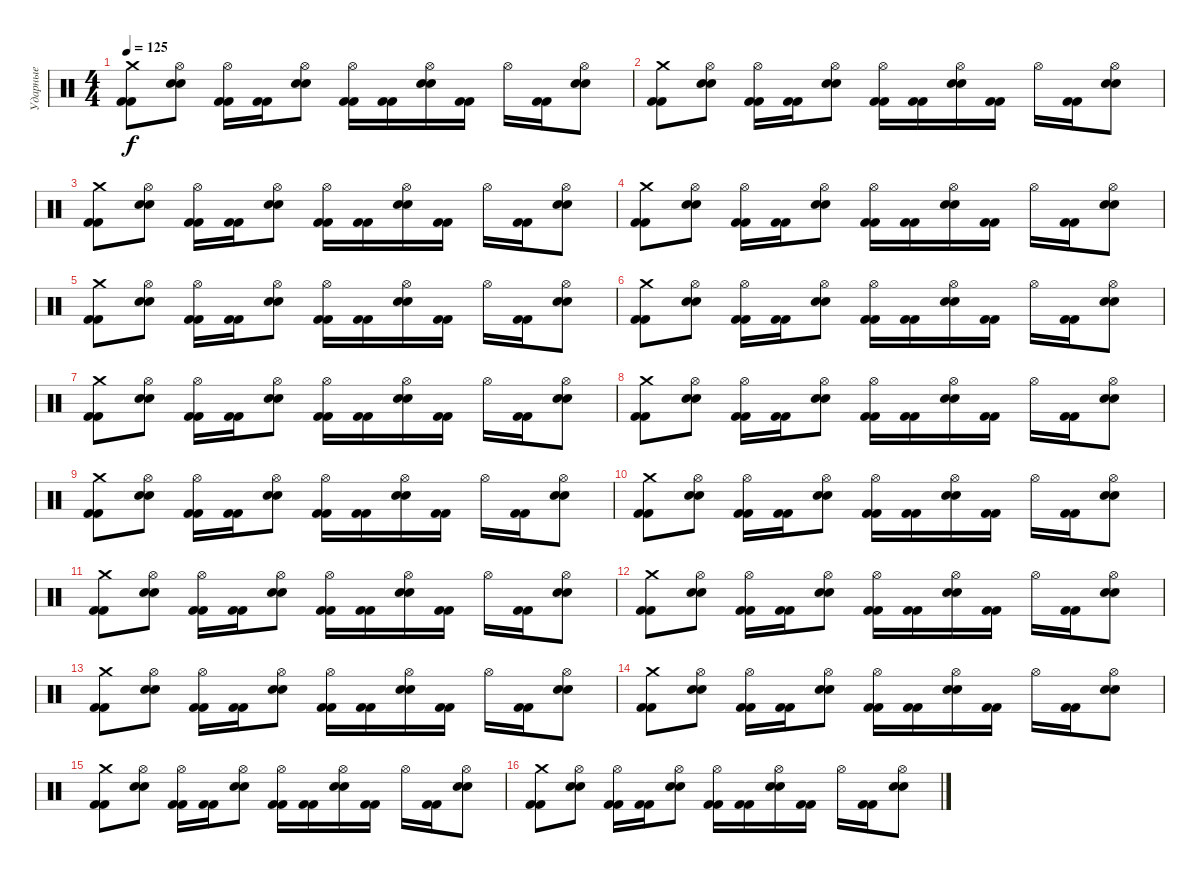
\track ("Ударные" "Ударные") {instrument percussion}
\staff {score}
\articulation defaults
\ts (4 4)
\tempo 125
\clef neutral
\ks c
("Crash medium (hit)" "Kick (hit) 2" "Kick (hit) 2").8{dy f} ("Hi-Hat (open)" "Electric Snare (hit)" "Electric Snare (hit)").8 ("Hi-Hat (open)" "Kick (hit) 2" "Kick (hit) 2").16 ("Kick (hit) 2" "Kick (hit) 2").16 ("Hi-Hat (open)" "Electric Snare (hit)" "Electric Snare (hit)").8 ("Hi-Hat (open)" "Kick (hit) 2" "Kick (hit) 2").16 ("Kick (hit) 2" "Kick (hit) 2").16 ("Hi-Hat (open)" "Electric Snare (hit)" "Electric Snare (hit)").16 ("Kick (hit) 2" "Kick (hit) 2").16 "Hi-Hat (open)".16 ("Kick (hit) 2" "Kick (hit) 2").16 ("Hi-Hat (open)" "Electric Snare (hit)" "Electric Snare (hit)").8 |
("Crash medium (hit)" "Kick (hit) 2" "Kick (hit) 2").8 ("Hi-Hat (open)" "Electric Snare (hit)" "Electric Snare (hit)").8 ("Hi-Hat (open)" "Kick (hit) 2" "Kick (hit) 2").16 ("Kick (hit) 2" "Kick (hit) 2").16 ("Hi-Hat (open)" "Electric Snare (hit)" "Electric Snare (hit)").8 ("Hi-Hat (open)" "Kick (hit) 2" "Kick (hit) 2").16 ("Kick (hit) 2" "Kick (hit) 2").16 ("Hi-Hat (open)" "Electric Snare (hit)" "Electric Snare (hit)").16 ("Kick (hit) 2" "Kick (hit) 2").16 "Hi-Hat (open)".16 ("Kick (hit) 2" "Kick (hit) 2").16 ("Hi-Hat (open)" "Electric Snare (hit)" "Electric Snare (hit)").8 |
("Crash medium (hit)" "Kick (hit) 2" "Kick (hit) 2").8 ("Hi-Hat (open)" "Electric Snare (hit)" "Electric Snare (hit)").8 ("Hi-Hat (open)" "Kick (hit) 2" "Kick (hit) 2").16 ("Kick (hit) 2" "Kick (hit) 2").16 ("Hi-Hat (open)" "Electric Snare (hit)" "Electric Snare (hit)").8 ("Hi-Hat (open)" "Kick (hit) 2" "Kick (hit) 2").16 ("Kick (hit) 2" "Kick (hit) 2").16 ("Hi-Hat (open)" "Electric Snare (hit)" "Electric Snare (hit)").16 ("Kick (hit) 2" "Kick (hit) 2").16 "Hi-Hat (open)".16 ("Kick (hit) 2" "Kick (hit) 2").16 ("Hi-Hat (open)" "Electric Snare (hit)" "Electric Snare (hit)").8 |
("Crash medium (hit)" "Kick (hit) 2" "Kick (hit) 2").8 ("Hi-Hat (open)" "Electric Snare (hit)" "Electric Snare (hit)").8 ("Hi-Hat (open)" "Kick (hit) 2" "Kick (hit) 2").16 ("Kick (hit) 2" "Kick (hit) 2").16 ("Hi-Hat (open)" "Electric Snare (hit)" "Electric Snare (hit)").8 ("Hi-Hat (open)" "Kick (hit) 2" "Kick (hit) 2").16 ("Kick (hit) 2" "Kick (hit) 2").16 ("Hi-Hat (open)" "Electric Snare (hit)" "Electric Snare (hit)").16 ("Kick (hit) 2" "Kick (hit) 2").16 "Hi-Hat (open)".16 ("Kick (hit) 2" "Kick (hit) 2").16 ("Hi-Hat (open)" "Electric Snare (hit)" "Electric Snare (hit)").8 |
("Crash medium (hit)" "Kick (hit) 2" "Kick (hit) 2").8 ("Hi-Hat (open)" "Electric Snare (hit)" "Electric Snare (hit)").8 ("Hi-Hat (open)" "Kick (hit) 2" "Kick (hit) 2").16 ("Kick (hit) 2" "Kick (hit) 2").16 ("Hi-Hat (open)" "Electric Snare (hit)" "Electric Snare (hit)").8 ("Hi-Hat (open)" "Kick (hit) 2" "Kick (hit) 2").16 ("Kick (hit) 2" "Kick (hit) 2").16 ("Hi-Hat (open)" "Electric Snare (hit)" "Electric Snare (hit)").16 ("Kick (hit) 2" "Kick (hit) 2").16 "Hi-Hat (open)".16 ("Kick (hit) 2" "Kick (hit) 2").16 ("Hi-Hat (open)" "Electric Snare (hit)" "Electric Snare (hit)").8 |
("Crash medium (hit)" "Kick (hit) 2" "Kick (hit) 2").8 ("Hi-Hat (open)" "Electric Snare (hit)" "Electric Snare (hit)").8 ("Hi-Hat (open)" "Kick (hit) 2" "Kick (hit) 2").16 ("Kick (hit) 2" "Kick (hit) 2").16 ("Hi-Hat (open)" "Electric Snare (hit)" "Electric Snare (hit)").8 ("Hi-Hat (open)" "Kick (hit) 2" "Kick (hit) 2").16 ("Kick (hit) 2" "Kick (hit) 2").16 ("Hi-Hat (open)" "Electric Snare (hit)" "Electric Snare (hit)").16 ("Kick (hit) 2" "Kick (hit) 2").16 "Hi-Hat (open)".16 ("Kick (hit) 2" "Kick (hit) 2").16 ("Hi-Hat (open)" "Electric Snare (hit)" "Electric Snare (hit)").8 |
("Crash medium (hit)" "Kick (hit) 2" "Kick (hit) 2").8 ("Hi-Hat (open)" "Electric Snare (hit)" "Electric Snare (hit)").8 ("Hi-Hat (open)" "Kick (hit) 2" "Kick (hit) 2").16 ("Kick (hit) 2" "Kick (hit) 2").16 ("Hi-Hat (open)" "Electric Snare (hit)" "Electric Snare (hit)").8 ("Hi-Hat (open)" "Kick (hit) 2" "Kick (hit) 2").16 ("Kick (hit) 2" "Kick (hit) 2").16 ("Hi-Hat (open)" "Electric Snare (hit)" "Electric Snare (hit)").16 ("Kick (hit) 2" "Kick (hit) 2").16 "Hi-Hat (open)".16 ("Kick (hit) 2" "Kick (hit) 2").16 ("Hi-Hat (open)" "Electric Snare (hit)" "Electric Snare (hit)").8 |
("Crash medium (hit)" "Kick (hit) 2" "Kick (hit) 2").8 ("Hi-Hat (open)" "Electric Snare (hit)" "Electric Snare (hit)").8 ("Hi-Hat (open)" "Kick (hit) 2" "Kick (hit) 2").16 ("Kick (hit) 2" "Kick (hit) 2").16 ("Hi-Hat (open)" "Electric Snare (hit)" "Electric Snare (hit)").8 ("Hi-Hat (open)" "Kick (hit) 2" "Kick (hit) 2").16 ("Kick (hit) 2" "Kick (hit) 2").16 ("Hi-Hat (open)" "Electric Snare (hit)" "Electric Snare (hit)").16 ("Kick (hit) 2" "Kick (hit) 2").16 "Hi-Hat (open)".16 ("Kick (hit) 2" "Kick (hit) 2").16 ("Hi-Hat (open)" "Electric Snare (hit)" "Electric Snare (hit)").8 |
("Crash medium (hit)" "Kick (hit) 2" "Kick (hit) 2").8 ("Hi-Hat (open)" "Electric Snare (hit)" "Electric Snare (hit)").8 ("Hi-Hat (open)" "Kick (hit) 2" "Kick (hit) 2").16 ("Kick (hit) 2" "Kick (hit) 2").16 ("Hi-Hat (open)" "Electric Snare (hit)" "Electric Snare (hit)").8 ("Hi-Hat (open)" "Kick (hit) 2" "Kick (hit) 2").16 ("Kick (hit) 2" "Kick (hit) 2").16 ("Hi-Hat (open)" "Electric Snare (hit)" "Electric Snare (hit)").16 ("Kick (hit) 2" "Kick (hit) 2").16 "Hi-Hat (open)".16 ("Kick (hit) 2" "Kick (hit) 2").16 ("Hi-Hat (open)" "Electric Snare (hit)" "Electric Snare (hit)").8 |
("Crash medium (hit)" "Kick (hit) 2" "Kick (hit) 2").8 ("Hi-Hat (open)" "Electric Snare (hit)" "Electric Snare (hit)").8 ("Hi-Hat (open)" "Kick (hit) 2" "Kick (hit) 2").16 ("Kick (hit) 2" "Kick (hit) 2").16 ("Hi-Hat (open)" "Electric Snare (hit)" "Electric Snare (hit)").8 ("Hi-Hat (open)" "Kick (hit) 2" "Kick (hit) 2").16 ("Kick (hit) 2" "Kick (hit) 2").16 ("Hi-Hat (open)" "Electric Snare (hit)" "Electric Snare (hit)").16 ("Kick (hit) 2" "Kick (hit) 2").16 "Hi-Hat (open)".16 ("Kick (hit) 2" "Kick (hit) 2").16 ("Hi-Hat (open)" "Electric Snare (hit)" "Electric Snare (hit)").8 |
("Crash medium (hit)" "Kick (hit) 2" "Kick (hit) 2").8 ("Hi-Hat (open)" "Electric Snare (hit)" "Electric Snare (hit)").8 ("Hi-Hat (open)" "Kick (hit) 2" "Kick (hit) 2").16 ("Kick (hit) 2" "Kick (hit) 2").16 ("Hi-Hat (open)" "Electric Snare (hit)" "Electric Snare (hit)").8 ("Hi-Hat (open)" "Kick (hit) 2" "Kick (hit) 2").16 ("Kick (hit) 2" "Kick (hit) 2").16 ("Hi-Hat (open)" "Electric Snare (hit)" "Electric Snare (hit)").16 ("Kick (hit) 2" "Kick (hit) 2").16 "Hi-Hat (open)".16 ("Kick (hit) 2" "Kick (hit) 2").16 ("Hi-Hat (open)" "Electric Snare (hit)" "Electric Snare (hit)").8 |
("Crash medium (hit)" "Kick (hit) 2" "Kick (hit) 2").8 ("Hi-Hat (open)" "Electric Snare (hit)" "Electric Snare (hit)").8 ("Hi-Hat (open)" "Kick (hit) 2" "Kick (hit) 2").16 ("Kick (hit) 2" "Kick (hit) 2").16 ("Hi-Hat (open)" "Electric Snare (hit)" "Electric Snare (hit)").8 ("Hi-Hat (open)" "Kick (hit) 2" "Kick (hit) 2").16 ("Kick (hit) 2" "Kick (hit) 2").16 ("Hi-Hat (open)" "Electric Snare (hit)" "Electric Snare (hit)").16 ("Kick (hit) 2" "Kick (hit) 2").16 "Hi-Hat (open)".16 ("Kick (hit) 2" "Kick (hit) 2").16 ("Hi-Hat (open)" "Electric Snare (hit)" "Electric Snare (hit)").8 |
("Crash medium (hit)" "Kick (hit) 2" "Kick (hit) 2").8 ("Hi-Hat (open)" "Electric Snare (hit)" "Electric Snare (hit)").8 ("Hi-Hat (open)" "Kick (hit) 2" "Kick (hit) 2").16 ("Kick (hit) 2" "Kick (hit) 2").16 ("Hi-Hat (open)" "Electric Snare (hit)" "Electric Snare (hit)").8 ("Hi-Hat (open)" "Kick (hit) 2" "Kick (hit) 2").16 ("Kick (hit) 2" "Kick (hit) 2").16 ("Hi-Hat (open)" "Electric Snare (hit)" "Electric Snare (hit)").16 ("Kick (hit) 2" "Kick (hit) 2").16 "Hi-Hat (open)".16 ("Kick (hit) 2" "Kick (hit) 2").16 ("Hi-Hat (open)" "Electric Snare (hit)" "Electric Snare (hit)").8 |
("Crash medium (hit)" "Kick (hit) 2" "Kick (hit) 2").8 ("Hi-Hat (open)" "Electric Snare (hit)" "Electric Snare (hit)").8 ("Hi-Hat (open)" "Kick (hit) 2" "Kick (hit) 2").16 ("Kick (hit) 2" "Kick (hit) 2").16 ("Hi-Hat (open)" "Electric Snare (hit)" "Electric Snare (hit)").8 ("Hi-Hat (open)" "Kick (hit) 2" "Kick (hit) 2").16 ("Kick (hit) 2" "Kick (hit) 2").16 ("Hi-Hat (open)" "Electric Snare (hit)" "Electric Snare (hit)").16 ("Kick (hit) 2" "Kick (hit) 2").16 "Hi-Hat (open)".16 ("Kick (hit) 2" "Kick (hit) 2").16 ("Hi-Hat (open)" "Electric Snare (hit)" "Electric Snare (hit)").8 |
("Crash medium (hit)" "Kick (hit) 2" "Kick (hit) 2").8 ("Hi-Hat (open)" "Electric Snare (hit)" "Electric Snare (hit)").8 ("Hi-Hat (open)" "Kick (hit) 2" "Kick (hit) 2").16 ("Kick (hit) 2" "Kick (hit) 2").16 ("Hi-Hat (open)" "Electric Snare (hit)" "Electric Snare (hit)").8 ("Hi-Hat (open)" "Kick (hit) 2" "Kick (hit) 2").16 ("Kick (hit) 2" "Kick (hit) 2").16 ("Hi-Hat (open)" "Electric Snare (hit)" "Electric Snare (hit)").16 ("Kick (hit) 2" "Kick (hit) 2").16 "Hi-Hat (open)".16 ("Kick (hit) 2" "Kick (hit) 2").16 ("Hi-Hat (open)" "Electric Snare (hit)" "Electric Snare (hit)").8 |
("Crash medium (hit)" "Kick (hit) 2" "Kick (hit) 2").8 ("Hi-Hat (open)" "Electric Snare (hit)" "Electric Snare (hit)").8 ("Hi-Hat (open)" "Kick (hit) 2" "Kick (hit) 2").16 ("Kick (hit) 2" "Kick (hit) 2").16 ("Hi-Hat (open)" "Electric Snare (hit)" "Electric Snare (hit)").8 ("Hi-Hat (open)" "Kick (hit) 2" "Kick (hit) 2").16 ("Kick (hit) 2" "Kick (hit) 2").16 ("Hi-Hat (open)" "Electric Snare (hit)" "Electric Snare (hit)").16 ("Kick (hit) 2" "Kick (hit) 2").16 "Hi-Hat (open)".16 ("Kick (hit) 2" "Kick (hit) 2").16 ("Hi-Hat (open)" "Electric Snare (hit)" "Electric Snare (hit)").8
